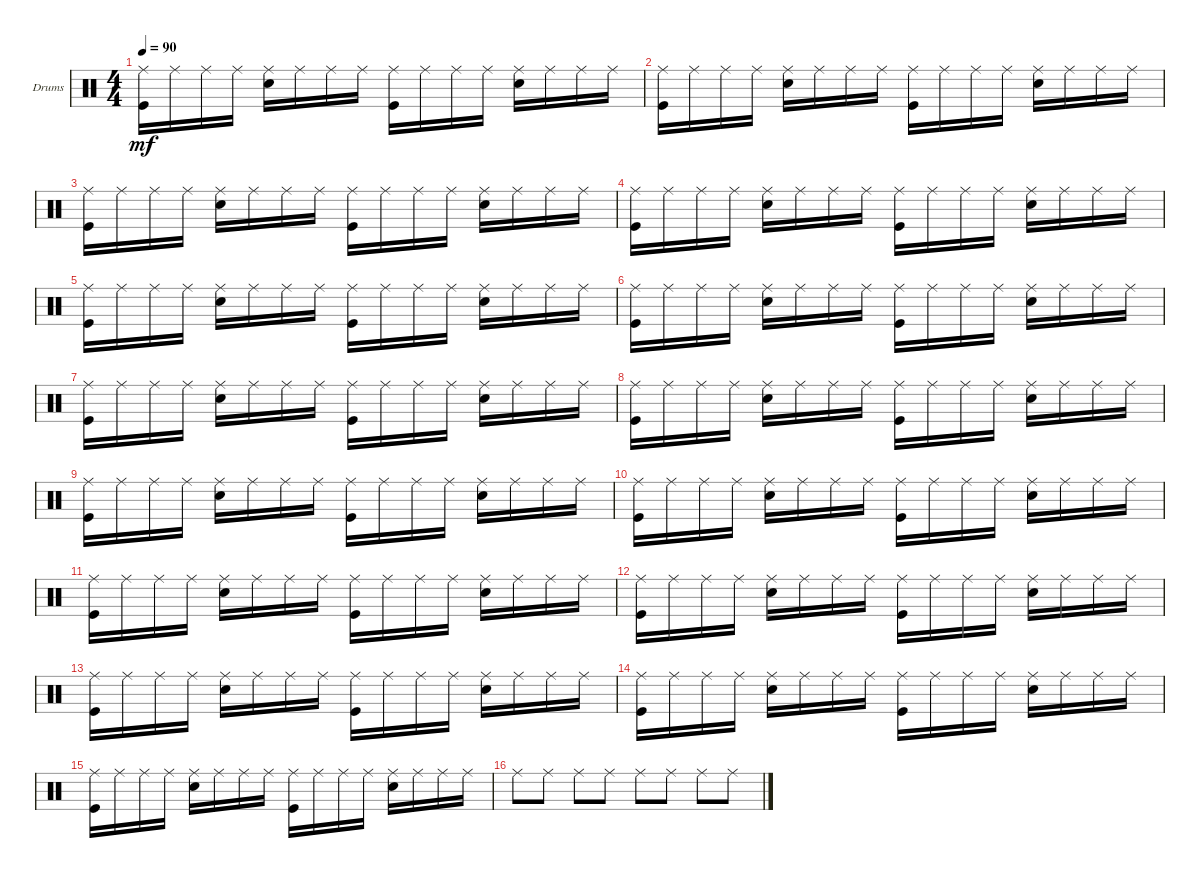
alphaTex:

\defaultSystemsLayout 4
\bracketExtendMode groupsimilarinstruments
\firstSystemTrackNameOrientation horizontal
\otherSystemsTrackNameOrientation horizontal
\track ("Drumkit" "Drums") {instrument percussion}
\staff {score}
\articulation defaults
\ts (4 4)
\tempo 90
\clef neutral
\ks c
("Ride (middle)" "Kick (hit)").16{dy mf} "Ride (middle)".16 "Ride (middle)".16 "Ride (middle)".16 ("Ride (middle)" "Snare (hit) 2").16 "Ride (middle)".16 "Ride (middle)".16 "Ride (middle)".16 ("Ride (middle)" "Kick (hit)").16 "Ride (middle)".16 "Ride (middle)".16 "Ride (middle)".16 ("Ride (middle)" "Snare (hit) 2").16 "Ride (middle)".16 "Ride (middle)".16 "Ride (middle)".16 |
("Ride (middle)" "Kick (hit)").16 "Ride (middle)".16 "Ride (middle)".16 "Ride (middle)".16 ("Ride (middle)" "Snare (hit) 2").16 "Ride (middle)".16 "Ride (middle)".16 "Ride (middle)".16 ("Ride (middle)" "Kick (hit)").16 "Ride (middle)".16 "Ride (middle)".16 "Ride (middle)".16 ("Ride (middle)" "Snare (hit) 2").16 "Ride (middle)".16 "Ride (middle)".16 "Ride (middle)".16 |
("Ride (middle)" "Kick (hit)").16 "Ride (middle)".16 "Ride (middle)".16 "Ride (middle)".16 ("Ride (middle)" "Snare (hit) 2").16 "Ride (middle)".16 "Ride (middle)".16 "Ride (middle)".16 ("Ride (middle)" "Kick (hit)").16 "Ride (middle)".16 "Ride (middle)".16 "Ride (middle)".16 ("Ride (middle)" "Snare (hit) 2").16 "Ride (middle)".16 "Ride (middle)".16 "Ride (middle)".16 |
("Ride (middle)" "Kick (hit)").16 "Ride (middle)".16 "Ride (middle)".16 "Ride (middle)".16 ("Ride (middle)" "Snare (hit) 2").16 "Ride (middle)".16 "Ride (middle)".16 "Ride (middle)".16 ("Ride (middle)" "Kick (hit)").16 "Ride (middle)".16 "Ride (middle)".16 "Ride (middle)".16 ("Ride (middle)" "Snare (hit) 2").16 "Ride (middle)".16 "Ride (middle)".16 "Ride (middle)".16 |
("Ride (middle)" "Kick (hit)").16 "Ride (middle)".16 "Ride (middle)".16 "Ride (middle)".16 ("Ride (middle)" "Snare (hit) 2").16 "Ride (middle)".16 "Ride (middle)".16 "Ride (middle)".16 ("Ride (middle)" "Kick (hit)").16 "Ride (middle)".16 "Ride (middle)".16 "Ride (middle)".16 ("Ride (middle)" "Snare (hit) 2").16 "Ride (middle)".16 "Ride (middle)".16 "Ride (middle)".16 |
("Ride (middle)" "Kick (hit)").16 "Ride (middle)".16 "Ride (middle)".16 "Ride (middle)".16 ("Ride (middle)" "Snare (hit) 2").16 "Ride (middle)".16 "Ride (middle)".16 "Ride (middle)".16 ("Ride (middle)" "Kick (hit)").16 "Ride (middle)".16 "Ride (middle)".16 "Ride (middle)".16 ("Ride (middle)" "Snare (hit) 2").16 "Ride (middle)".16 "Ride (middle)".16 "Ride (middle)".16 |
("Ride (middle)" "Kick (hit)").16 "Ride (middle)".16 "Ride (middle)".16 "Ride (middle)".16 ("Ride (middle)" "Snare (hit) 2").16 "Ride (middle)".16 "Ride (middle)".16 "Ride (middle)".16 ("Ride (middle)" "Kick (hit)").16 "Ride (middle)".16 "Ride (middle)".16 "Ride (middle)".16 ("Ride (middle)" "Snare (hit) 2").16 "Ride (middle)".16 "Ride (middle)".16 "Ride (middle)".16 |
("Ride (middle)" "Kick (hit)").16 "Ride (middle)".16 "Ride (middle)".16 "Ride (middle)".16 ("Ride (middle)" "Snare (hit) 2").16 "Ride (middle)".16 "Ride (middle)".16 "Ride (middle)".16 ("Ride (middle)" "Kick (hit)").16 "Ride (middle)".16 "Ride (middle)".16 "Ride (middle)".16 ("Ride (middle)" "Snare (hit) 2").16 "Ride (middle)".16 "Ride (middle)".16 "Ride (middle)".16 |
("Ride (middle)" "Kick (hit)").16 "Ride (middle)".16 "Ride (middle)".16 "Ride (middle)".16 ("Ride (middle)" "Snare (hit) 2").16 "Ride (middle)".16 "Ride (middle)".16 "Ride (middle)".16 ("Ride (middle)" "Kick (hit)").16 "Ride (middle)".16 "Ride (middle)".16 "Ride (middle)".16 ("Ride (middle)" "Snare (hit) 2").16 "Ride (middle)".16 "Ride (middle)".16 "Ride (middle)".16 |
("Ride (middle)" "Kick (hit)").16 "Ride (middle)".16 "Ride (middle)".16 "Ride (middle)".16 ("Ride (middle)" "Snare (hit) 2").16 "Ride (middle)".16 "Ride (middle)".16 "Ride (middle)".16 ("Ride (middle)" "Kick (hit)").16 "Ride (middle)".16 "Ride (middle)".16 "Ride (middle)".16 ("Ride (middle)" "Snare (hit) 2").16 "Ride (middle)".16 "Ride (middle)".16 "Ride (middle)".16 |
("Ride (middle)" "Kick (hit)").16 "Ride (middle)".16 "Ride (middle)".16 "Ride (middle)".16 ("Ride (middle)" "Snare (hit) 2").16 "Ride (middle)".16 "Ride (middle)".16 "Ride (middle)".16 ("Ride (middle)" "Kick (hit)").16 "Ride (middle)".16 "Ride (middle)".16 "Ride (middle)".16 ("Ride (middle)" "Snare (hit) 2").16 "Ride (middle)".16 "Ride (middle)".16 "Ride (middle)".16 |
("Ride (middle)" "Kick (hit)").16 "Ride (middle)".16 "Ride (middle)".16 "Ride (middle)".16 ("Ride (middle)" "Snare (hit) 2").16 "Ride (middle)".16 "Ride (middle)".16 "Ride (middle)".16 ("Ride (middle)" "Kick (hit)").16 "Ride (middle)".16 "Ride (middle)".16 "Ride (middle)".16 ("Ride (middle)" "Snare (hit) 2").16 "Ride (middle)".16 "Ride (middle)".16 "Ride (middle)".16 |
("Ride (middle)" "Kick (hit)").16 "Ride (middle)".16 "Ride (middle)".16 "Ride (middle)".16 ("Ride (middle)" "Snare (hit) 2").16 "Ride (middle)".16 "Ride (middle)".16 "Ride (middle)".16 ("Ride (middle)" "Kick (hit)").16 "Ride (middle)".16 "Ride (middle)".16 "Ride (middle)".16 ("Ride (middle)" "Snare (hit) 2").16 "Ride (middle)".16 "Ride (middle)".16 "Ride (middle)".16 |
("Ride (middle)" "Kick (hit)").16 "Ride (middle)".16 "Ride (middle)".16 "Ride (middle)".16 ("Ride (middle)" "Snare (hit) 2").16 "Ride (middle)".16 "Ride (middle)".16 "Ride (middle)".16 ("Ride (middle)" "Kick (hit)").16 "Ride (middle)".16 "Ride (middle)".16 "Ride (middle)".16 ("Ride (middle)" "Snare (hit) 2").16 "Ride (middle)".16 "Ride (middle)".16 "Ride (middle)".16 |
("Ride (middle)" "Kick (hit)").16 "Ride (middle)".16 "Ride (middle)".16 "Ride (middle)".16 ("Ride (middle)" "Snare (hit) 2").16 "Ride (middle)".16 "Ride (middle)".16 "Ride (middle)".16 ("Ride (middle)" "Kick (hit)").16 "Ride (middle)".16 "Ride (middle)".16 "Ride (middle)".16 ("Ride (middle)" "Snare (hit) 2").16 "Ride (middle)".16 "Ride (middle)".16 "Ride (middle)".16 |
"Ride (middle)".8 "Ride (middle)".8 "Ride (middle)".8 "Ride (middle)".8 "Ride (middle)".8 "Ride (middle)".8 "Ride (middle)".8 "Ride (middle)".8
